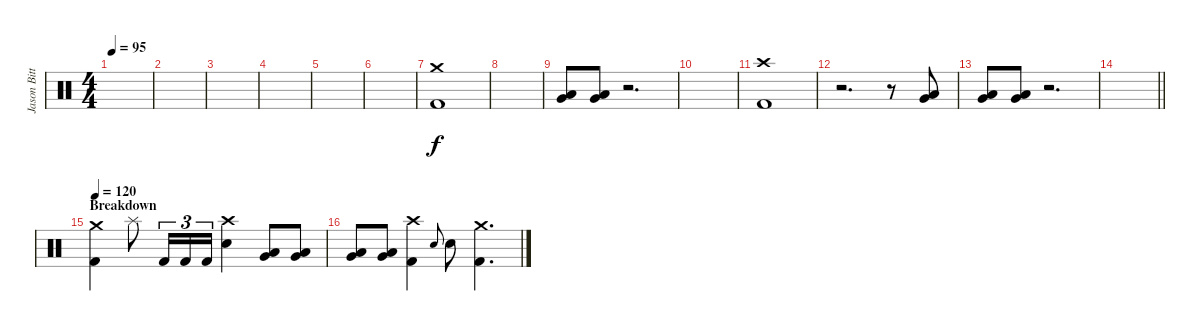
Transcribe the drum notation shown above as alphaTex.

\track ("Jason Bittner" "Jason Bitt") {instrument percussion}
\staff {score}
\articulation defaults
\ts (4 4)
\tempo 95
\clef neutral
\ks c
|
|
|
|
|
|
("Crash medium (hit)" "Kick (hit) 2").1 |
|
("Low Tom (hit)" "Very Low Tom (hit)").8 ("Low Tom (hit)" "Very Low Tom (hit)").8 r.2{d} |
|
("Crash high (hit)" "Kick (hit) 2").1 |
r.2{d} r.8 ("Low Tom (hit)" "Very Low Tom (hit)").8 |
("Low Tom (hit)" "Very Low Tom (hit)").8 ("Low Tom (hit)" "Very Low Tom (hit)").8 r.2{d} |
\barLineRight lightlight
|
\section ("" "Breakdown")
\tempo 120
("Crash medium (hit)" "Kick (hit) 2").4 "Splash (hit)".8 "Kick (hit) 2".16{tu (3 2)} "Kick (hit) 2".16{tu (3 2)} "Kick (hit) 2".16{tu (3 2)} ("Crash high (hit)" "Electric Snare (hit)").4 ("Low Tom (hit)" "Very Low Tom (hit)").8 ("Low Tom (hit)" "Very Low Tom (hit)").8 |
("Low Tom (hit)" "Very Low Tom (hit)").8 ("Low Tom (hit)" "Very Low Tom (hit)").8 ("Crash high (hit)" "Kick (hit) 2").4 "Electric Snare (hit)".8{gr onbeat} "Electric Snare (hit)".8 ("Crash medium (hit)" "Kick (hit) 2").4{d}
